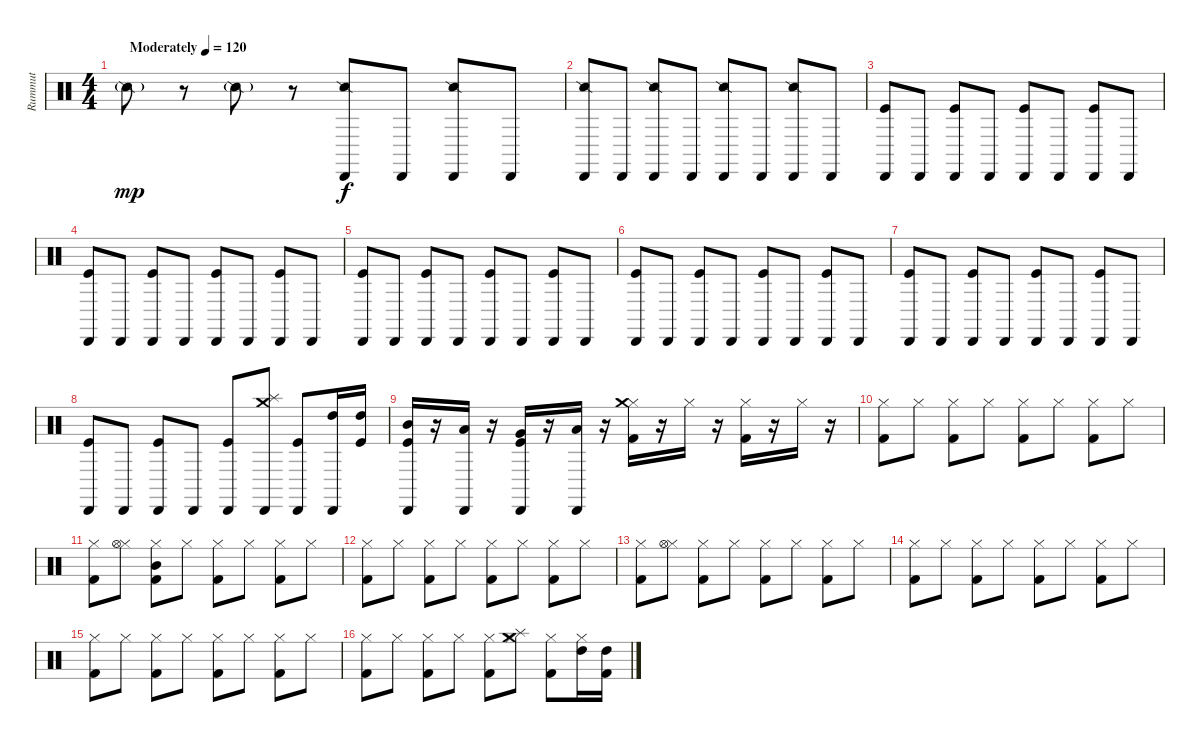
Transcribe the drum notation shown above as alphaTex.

\track ("Rummut" "Rummut") {instrument percussion}
\staff {score}
\articulation defaults
\ts (4 4)
\tempo (120 "Moderately")
\clef neutral
\ks c "Snare (side stick) 2"{g}.8{dy mp}
r.8 "Snare (side stick) 2"{g}.8 r.8 ("Cabasa (hit)" "Snare (side stick) 2").8{dy f} "Cabasa (hit)".8 ("Cabasa (hit)" "Snare (side stick) 2").8 "Cabasa (hit)".8 |
("Cabasa (hit)" "Snare (side stick) 2").8 "Cabasa (hit)".8 ("Cabasa (hit)" "Snare (side stick) 2").8 "Cabasa (hit)".8 ("Cabasa (hit)" "Snare (side stick) 2").8 "Cabasa (hit)".8 ("Cabasa (hit)" "Snare (side stick) 2").8 "Cabasa (hit)".8 |
("Cabasa (hit)" "Kick (hit)").8 "Cabasa (hit)".8 ("Cabasa (hit)" "Kick (hit)").8 "Cabasa (hit)".8 ("Cabasa (hit)" "Kick (hit)").8 "Cabasa (hit)".8 ("Cabasa (hit)" "Kick (hit)").8 "Cabasa (hit)".8 |
("Cabasa (hit)" "Kick (hit)").8 "Cabasa (hit)".8 ("Cabasa (hit)" "Kick (hit)").8 "Cabasa (hit)".8 ("Cabasa (hit)" "Kick (hit)").8 "Cabasa (hit)".8 ("Cabasa (hit)" "Kick (hit)").8 "Cabasa (hit)".8 |
("Cabasa (hit)" "Kick (hit)").8 "Cabasa (hit)".8 ("Cabasa (hit)" "Kick (hit)").8 "Cabasa (hit)".8 ("Cabasa (hit)" "Kick (hit)").8 "Cabasa (hit)".8 ("Cabasa (hit)" "Kick (hit)").8 "Cabasa (hit)".8 |
("Cabasa (hit)" "Kick (hit)").8 "Cabasa (hit)".8 ("Cabasa (hit)" "Kick (hit)").8 "Cabasa (hit)".8 ("Cabasa (hit)" "Kick (hit)").8 "Cabasa (hit)".8 ("Cabasa (hit)" "Kick (hit)").8 "Cabasa (hit)".8 |
("Cabasa (hit)" "Kick (hit)").8 "Cabasa (hit)".8 ("Cabasa (hit)" "Kick (hit)").8 "Cabasa (hit)".8 ("Cabasa (hit)" "Kick (hit)").8 "Cabasa (hit)".8 ("Cabasa (hit)" "Kick (hit)").8 "Cabasa (hit)".8 |
("Cabasa (hit)" "Kick (hit)").8 "Cabasa (hit)".8 ("Cabasa (hit)" "Kick (hit)").8 "Cabasa (hit)".8 ("Cabasa (hit)" "Kick (hit)").8 ("Cabasa (hit)" "Crash medium (hit)" "Splash (hit)").8 ("Cabasa (hit)" "Kick (hit)").8 ("Cabasa (hit)" "High Tom (hit)").16 ("Kick (hit)" "High Tom (hit)").16 |
("Cabasa (hit)" "Kick (hit)" "Mid Tom (hit)").16 r.16 ("Cabasa (hit)" "Low Tom (hit)").16 r.16 ("Cabasa (hit)" "Kick (hit)" "Very Low Tom (hit)").16 r.16 ("Cabasa (hit)" "Low Floor Tom (hit)").16 r.16 ("Hi-Hat (closed)" "Kick (hit) 2" "Crash medium (hit)").16 r.16 "Hi-Hat (closed)".16 r.16 ("Hi-Hat (closed)" "Kick (hit) 2").16 r.16 "Hi-Hat (closed)".16 r.16 |
("Hi-Hat (closed)" "Kick (hit) 2").8 "Hi-Hat (closed)".8 ("Hi-Hat (closed)" "Kick (hit) 2").8 "Hi-Hat (closed)".8 ("Hi-Hat (closed)" "Kick (hit) 2").8 "Hi-Hat (closed)".8 ("Hi-Hat (closed)" "Kick (hit) 2").8 "Hi-Hat (closed)".8 |
("Hi-Hat (closed)" "Kick (hit) 2").8 ("Hi-Hat (closed)" "Hi-Hat (open)").8 ("Hi-Hat (closed)" "Kick (hit) 2" "Mid Tom (hit)").8 "Hi-Hat (closed)".8 ("Hi-Hat (closed)" "Kick (hit) 2").8 "Hi-Hat (closed)".8 ("Hi-Hat (closed)" "Kick (hit) 2").8 "Hi-Hat (closed)".8 |
("Hi-Hat (closed)" "Kick (hit) 2").8 "Hi-Hat (closed)".8 ("Hi-Hat (closed)" "Kick (hit) 2").8 "Hi-Hat (closed)".8 ("Hi-Hat (closed)" "Kick (hit) 2").8 "Hi-Hat (closed)".8 ("Hi-Hat (closed)" "Kick (hit) 2").8 "Hi-Hat (closed)".8 |
("Hi-Hat (closed)" "Kick (hit) 2").8 ("Hi-Hat (closed)" "Hi-Hat (open)").8 ("Hi-Hat (closed)" "Kick (hit) 2").8 "Hi-Hat (closed)".8 ("Hi-Hat (closed)" "Kick (hit) 2").8 "Hi-Hat (closed)".8 ("Hi-Hat (closed)" "Kick (hit) 2").8 "Hi-Hat (closed)".8 |
("Hi-Hat (closed)" "Kick (hit) 2").8 "Hi-Hat (closed)".8 ("Hi-Hat (closed)" "Kick (hit) 2").8 "Hi-Hat (closed)".8 ("Hi-Hat (closed)" "Kick (hit) 2").8 "Hi-Hat (closed)".8 ("Hi-Hat (closed)" "Kick (hit) 2").8 "Hi-Hat (closed)".8 |
("Hi-Hat (closed)" "Kick (hit) 2").8 "Hi-Hat (closed)".8 ("Hi-Hat (closed)" "Kick (hit) 2").8 "Hi-Hat (closed)".8 ("Hi-Hat (closed)" "Kick (hit) 2").8 "Hi-Hat (closed)".8 ("Hi-Hat (closed)" "Kick (hit) 2").8 "Hi-Hat (closed)".8 |
("Hi-Hat (closed)" "Kick (hit) 2").8 "Hi-Hat (closed)".8 ("Hi-Hat (closed)" "Kick (hit) 2").8 "Hi-Hat (closed)".8 ("Hi-Hat (closed)" "Kick (hit) 2").8 ("Hi-Hat (closed)" "Crash medium (hit)" "Splash (hit)").8 ("Hi-Hat (closed)" "Kick (hit) 2").8 ("Hi-Hat (closed)" "High Tom (hit)").16 ("Kick (hit) 2" "High Tom (hit)").16
